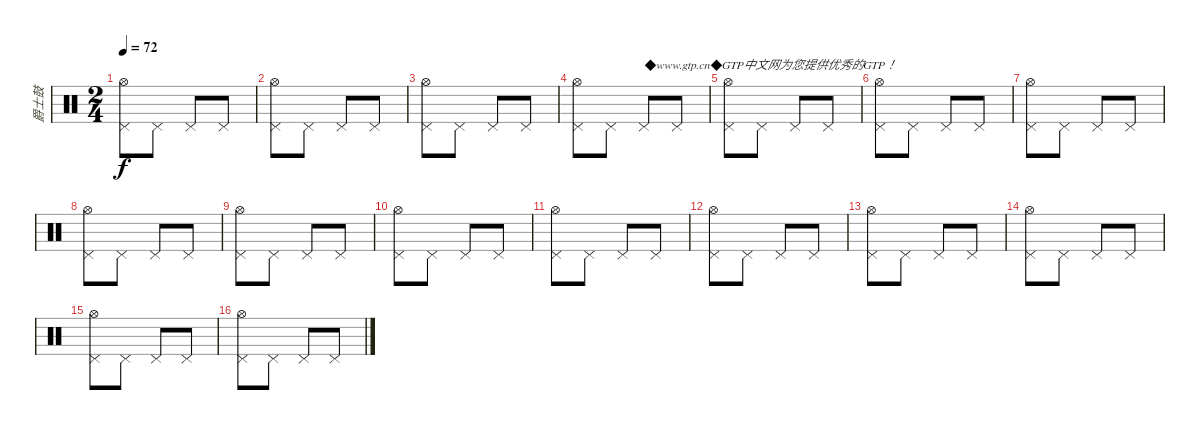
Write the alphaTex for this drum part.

\track ("爵士鼓" "爵士鼓") {instrument percussion}
\staff {score}
\articulation defaults
\ts (2 4)
\tempo 72
\clef neutral
\ks c
("Pedal Hi-Hat (hit)" "Hi-Hat (open)").8{dy f} "Pedal Hi-Hat (hit)".8 "Pedal Hi-Hat (hit)".8 "Pedal Hi-Hat (hit)".8 |
("Pedal Hi-Hat (hit)" "Hi-Hat (open)").8 "Pedal Hi-Hat (hit)".8 "Pedal Hi-Hat (hit)".8 "Pedal Hi-Hat (hit)".8 |
("Pedal Hi-Hat (hit)" "Hi-Hat (open)").8 "Pedal Hi-Hat (hit)".8 "Pedal Hi-Hat (hit)".8 "Pedal Hi-Hat (hit)".8 |
("Pedal Hi-Hat (hit)" "Hi-Hat (open)").8 "Pedal Hi-Hat (hit)".8 "Pedal Hi-Hat (hit)".8{txt "◆www.gtp.cn◆GTP中文网为您提供优秀的GTP！"} "Pedal Hi-Hat (hit)".8 |
("Pedal Hi-Hat (hit)" "Hi-Hat (open)").8 "Pedal Hi-Hat (hit)".8 "Pedal Hi-Hat (hit)".8 "Pedal Hi-Hat (hit)".8 |
("Pedal Hi-Hat (hit)" "Hi-Hat (open)").8 "Pedal Hi-Hat (hit)".8 "Pedal Hi-Hat (hit)".8 "Pedal Hi-Hat (hit)".8 |
("Pedal Hi-Hat (hit)" "Hi-Hat (open)").8 "Pedal Hi-Hat (hit)".8 "Pedal Hi-Hat (hit)".8 "Pedal Hi-Hat (hit)".8 |
("Pedal Hi-Hat (hit)" "Hi-Hat (open)").8 "Pedal Hi-Hat (hit)".8 "Pedal Hi-Hat (hit)".8 "Pedal Hi-Hat (hit)".8 |
("Pedal Hi-Hat (hit)" "Hi-Hat (open)").8 "Pedal Hi-Hat (hit)".8 "Pedal Hi-Hat (hit)".8 "Pedal Hi-Hat (hit)".8 |
("Pedal Hi-Hat (hit)" "Hi-Hat (open)").8 "Pedal Hi-Hat (hit)".8 "Pedal Hi-Hat (hit)".8 "Pedal Hi-Hat (hit)".8 |
("Pedal Hi-Hat (hit)" "Hi-Hat (open)").8 "Pedal Hi-Hat (hit)".8 "Pedal Hi-Hat (hit)".8 "Pedal Hi-Hat (hit)".8 |
("Pedal Hi-Hat (hit)" "Hi-Hat (open)").8 "Pedal Hi-Hat (hit)".8 "Pedal Hi-Hat (hit)".8 "Pedal Hi-Hat (hit)".8 |
("Pedal Hi-Hat (hit)" "Hi-Hat (open)").8 "Pedal Hi-Hat (hit)".8 "Pedal Hi-Hat (hit)".8 "Pedal Hi-Hat (hit)".8 |
("Pedal Hi-Hat (hit)" "Hi-Hat (open)").8 "Pedal Hi-Hat (hit)".8 "Pedal Hi-Hat (hit)".8 "Pedal Hi-Hat (hit)".8 |
("Pedal Hi-Hat (hit)" "Hi-Hat (open)").8 "Pedal Hi-Hat (hit)".8 "Pedal Hi-Hat (hit)".8 "Pedal Hi-Hat (hit)".8 |
("Pedal Hi-Hat (hit)" "Hi-Hat (open)").8 "Pedal Hi-Hat (hit)".8 "Pedal Hi-Hat (hit)".8 "Pedal Hi-Hat (hit)".8
